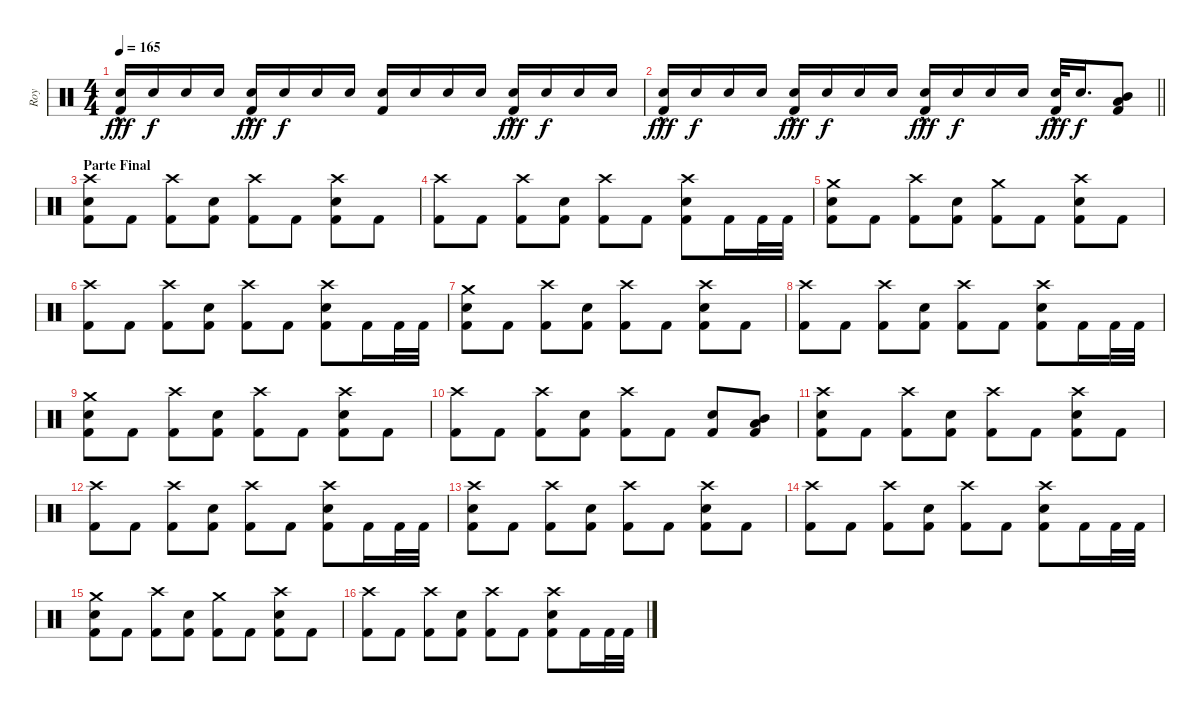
\track ("Roy" "Roy") {instrument percussion}
\staff {score}
\articulation defaults
\ts (4 4)
\tempo 165
\clef neutral
\ks c
("Electric Snare (hit)"{hac} "Kick (hit) 2").16{dy fff volume 16} "Electric Snare (hit)".16{dy f} "Electric Snare (hit)".16 "Electric Snare (hit)".16 ("Electric Snare (hit)"{hac} "Kick (hit) 2").16{dy fff} "Electric Snare (hit)".16{dy f} "Electric Snare (hit)".16 "Electric Snare (hit)".16 ("Electric Snare (hit)" "Kick (hit) 2").16 "Electric Snare (hit)".16 "Electric Snare (hit)".16 "Electric Snare (hit)".16 ("Electric Snare (hit)"{hac} "Kick (hit) 2").16{dy fff} "Electric Snare (hit)".16{dy f} "Electric Snare (hit)".16 "Electric Snare (hit)".16 |
\barLineRight lightlight
("Electric Snare (hit)"{hac} "Kick (hit) 2").16{dy fff} "Electric Snare (hit)".16{dy f} "Electric Snare (hit)".16 "Electric Snare (hit)".16 ("Electric Snare (hit)"{hac} "Kick (hit) 2").16{dy fff} "Electric Snare (hit)".16{dy f} "Electric Snare (hit)".16 "Electric Snare (hit)".16 ("Electric Snare (hit)"{hac} "Kick (hit) 2").16{dy fff} "Electric Snare (hit)".16{dy f} "Electric Snare (hit)".16 "Electric Snare (hit)".16 ("Electric Snare (hit)"{hac} "Kick (hit) 2").32{dy fff} "Electric Snare (hit)".16{d dy f} ("Mid Tom (hit)" "Low Tom (hit)" "Kick (hit) 2").8 |
\section ("" "Parte Final")
("Crash high (hit)" "Electric Snare (hit)" "Kick (hit) 2").8 "Kick (hit) 2".8 ("Crash high (hit)" "Kick (hit) 2").8 ("Electric Snare (hit)" "Kick (hit) 2").8 ("Crash high (hit)" "Kick (hit) 2").8 "Kick (hit) 2".8 ("Crash high (hit)" "Electric Snare (hit)" "Kick (hit) 2").8 "Kick (hit) 2".8 |
("Crash high (hit)" "Kick (hit) 2").8 "Kick (hit) 2".8 ("Crash high (hit)" "Kick (hit) 2").8 ("Electric Snare (hit)" "Kick (hit) 2").8 ("Crash high (hit)" "Kick (hit) 2").8 "Kick (hit) 2".8 ("Crash high (hit)" "Electric Snare (hit)" "Kick (hit) 2").8 "Kick (hit) 2".16 "Kick (hit) 2".32 "Kick (hit) 2".32 |
("Crash medium (hit)" "Electric Snare (hit)" "Kick (hit) 2").8 "Kick (hit) 2".8 ("Crash high (hit)" "Kick (hit) 2").8 ("Electric Snare (hit)" "Kick (hit) 2").8 ("Crash medium (hit)" "Kick (hit) 2").8 "Kick (hit) 2".8 ("Crash high (hit)" "Electric Snare (hit)" "Kick (hit) 2").8 "Kick (hit) 2".8 |
("Crash high (hit)" "Kick (hit) 2").8 "Kick (hit) 2".8 ("Crash high (hit)" "Kick (hit) 2").8 ("Electric Snare (hit)" "Kick (hit) 2").8 ("Crash high (hit)" "Kick (hit) 2").8 "Kick (hit) 2".8 ("Crash high (hit)" "Electric Snare (hit)" "Kick (hit) 2").8 "Kick (hit) 2".16 "Kick (hit) 2".32 "Kick (hit) 2".32 |
("Crash medium (hit)" "Electric Snare (hit)" "Kick (hit) 2").8 "Kick (hit) 2".8 ("Crash high (hit)" "Kick (hit) 2").8 ("Electric Snare (hit)" "Kick (hit) 2").8 ("Crash high (hit)" "Kick (hit) 2").8 "Kick (hit) 2".8 ("Crash high (hit)" "Electric Snare (hit)" "Kick (hit) 2").8 "Kick (hit) 2".8 |
("Crash high (hit)" "Kick (hit) 2").8 "Kick (hit) 2".8 ("Crash high (hit)" "Kick (hit) 2").8 ("Electric Snare (hit)" "Kick (hit) 2").8 ("Crash high (hit)" "Kick (hit) 2").8 "Kick (hit) 2".8 ("Crash high (hit)" "Electric Snare (hit)" "Kick (hit) 2").8 "Kick (hit) 2".16 "Kick (hit) 2".32 "Kick (hit) 2".32 |
("Crash medium (hit)" "Electric Snare (hit)" "Kick (hit) 2").8 "Kick (hit) 2".8 ("Crash high (hit)" "Kick (hit) 2").8 ("Electric Snare (hit)" "Kick (hit) 2").8 ("Crash high (hit)" "Kick (hit) 2").8 "Kick (hit) 2".8 ("Crash high (hit)" "Electric Snare (hit)" "Kick (hit) 2").8 "Kick (hit) 2".8 |
("Crash high (hit)" "Kick (hit) 2").8 "Kick (hit) 2".8 ("Crash high (hit)" "Kick (hit) 2").8 ("Electric Snare (hit)" "Kick (hit) 2").8 ("Crash high (hit)" "Kick (hit) 2").8 "Kick (hit) 2".8 ("Electric Snare (hit)" "Kick (hit) 2").8 ("Mid Tom (hit)" "Low Tom (hit)" "Kick (hit) 2").8 |
("Crash high (hit)" "Electric Snare (hit)" "Kick (hit) 2").8 "Kick (hit) 2".8 ("Crash high (hit)" "Kick (hit) 2").8 ("Electric Snare (hit)" "Kick (hit) 2").8 ("Crash high (hit)" "Kick (hit) 2").8 "Kick (hit) 2".8 ("Crash high (hit)" "Electric Snare (hit)" "Kick (hit) 2").8 "Kick (hit) 2".8 |
("Crash high (hit)" "Kick (hit) 2").8 "Kick (hit) 2".8 ("Crash high (hit)" "Kick (hit) 2").8 ("Electric Snare (hit)" "Kick (hit) 2").8 ("Crash high (hit)" "Kick (hit) 2").8 "Kick (hit) 2".8 ("Crash high (hit)" "Electric Snare (hit)" "Kick (hit) 2").8 "Kick (hit) 2".16 "Kick (hit) 2".32 "Kick (hit) 2".32 |
("Crash high (hit)" "Electric Snare (hit)" "Kick (hit) 2").8 "Kick (hit) 2".8 ("Crash high (hit)" "Kick (hit) 2").8 ("Electric Snare (hit)" "Kick (hit) 2").8 ("Crash high (hit)" "Kick (hit) 2").8 "Kick (hit) 2".8 ("Crash high (hit)" "Electric Snare (hit)" "Kick (hit) 2").8 "Kick (hit) 2".8 |
("Crash high (hit)" "Kick (hit) 2").8 "Kick (hit) 2".8 ("Crash high (hit)" "Kick (hit) 2").8 ("Electric Snare (hit)" "Kick (hit) 2").8 ("Crash high (hit)" "Kick (hit) 2").8 "Kick (hit) 2".8 ("Crash high (hit)" "Electric Snare (hit)" "Kick (hit) 2").8 "Kick (hit) 2".16 "Kick (hit) 2".32 "Kick (hit) 2".32 |
("Crash medium (hit)" "Electric Snare (hit)" "Kick (hit) 2").8 "Kick (hit) 2".8 ("Crash high (hit)" "Kick (hit) 2").8 ("Electric Snare (hit)" "Kick (hit) 2").8 ("Crash medium (hit)" "Kick (hit) 2").8 "Kick (hit) 2".8 ("Crash high (hit)" "Electric Snare (hit)" "Kick (hit) 2").8 "Kick (hit) 2".8 |
("Crash high (hit)" "Kick (hit) 2").8 "Kick (hit) 2".8 ("Crash high (hit)" "Kick (hit) 2").8 ("Electric Snare (hit)" "Kick (hit) 2").8 ("Crash high (hit)" "Kick (hit) 2").8 "Kick (hit) 2".8 ("Crash high (hit)" "Electric Snare (hit)" "Kick (hit) 2").8 "Kick (hit) 2".16 "Kick (hit) 2".32 "Kick (hit) 2".32
